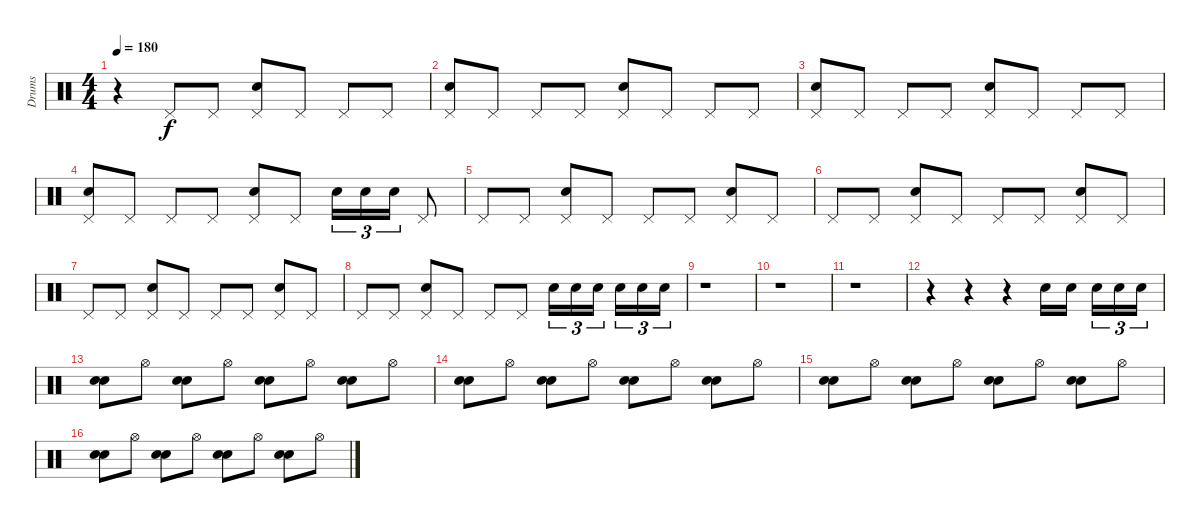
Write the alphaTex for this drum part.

\track ("Drums" "Drums") {instrument percussion}
\staff {score}
\articulation defaults
\ts (4 4)
\tempo 180
\clef neutral
\ks c
r.4{dy f} "Pedal Hi-Hat (hit)".8 "Pedal Hi-Hat (hit)".8 ("Pedal Hi-Hat (hit)" "Snare (hit) 2").8 "Pedal Hi-Hat (hit)".8 "Pedal Hi-Hat (hit)".8 "Pedal Hi-Hat (hit)".8 |
("Pedal Hi-Hat (hit)" "Snare (hit) 2").8 "Pedal Hi-Hat (hit)".8 "Pedal Hi-Hat (hit)".8 "Pedal Hi-Hat (hit)".8 ("Pedal Hi-Hat (hit)" "Snare (hit) 2").8 "Pedal Hi-Hat (hit)".8 "Pedal Hi-Hat (hit)".8 "Pedal Hi-Hat (hit)".8 |
("Pedal Hi-Hat (hit)" "Snare (hit) 2").8 "Pedal Hi-Hat (hit)".8 "Pedal Hi-Hat (hit)".8 "Pedal Hi-Hat (hit)".8 ("Pedal Hi-Hat (hit)" "Snare (hit) 2").8 "Pedal Hi-Hat (hit)".8 "Pedal Hi-Hat (hit)".8 "Pedal Hi-Hat (hit)".8 |
("Pedal Hi-Hat (hit)" "Snare (hit) 2").8 "Pedal Hi-Hat (hit)".8 "Pedal Hi-Hat (hit)".8 "Pedal Hi-Hat (hit)".8 ("Pedal Hi-Hat (hit)" "Snare (hit) 2").8 "Pedal Hi-Hat (hit)".8 "Snare (hit) 2".16{tu (3 2)} "Snare (hit) 2".16{tu (3 2)} "Snare (hit) 2".16{tu (3 2)} "Pedal Hi-Hat (hit)".8 |
"Pedal Hi-Hat (hit)".8 "Pedal Hi-Hat (hit)".8 ("Pedal Hi-Hat (hit)" "Snare (hit) 2").8 "Pedal Hi-Hat (hit)".8 "Pedal Hi-Hat (hit)".8 "Pedal Hi-Hat (hit)".8 ("Pedal Hi-Hat (hit)" "Snare (hit) 2").8 "Pedal Hi-Hat (hit)".8 |
"Pedal Hi-Hat (hit)".8 "Pedal Hi-Hat (hit)".8 ("Pedal Hi-Hat (hit)" "Snare (hit) 2").8 "Pedal Hi-Hat (hit)".8 "Pedal Hi-Hat (hit)".8 "Pedal Hi-Hat (hit)".8 ("Pedal Hi-Hat (hit)" "Snare (hit) 2").8 "Pedal Hi-Hat (hit)".8 |
"Pedal Hi-Hat (hit)".8 "Pedal Hi-Hat (hit)".8 ("Pedal Hi-Hat (hit)" "Snare (hit) 2").8 "Pedal Hi-Hat (hit)".8 "Pedal Hi-Hat (hit)".8 "Pedal Hi-Hat (hit)".8 ("Pedal Hi-Hat (hit)" "Snare (hit) 2").8 "Pedal Hi-Hat (hit)".8 |
"Pedal Hi-Hat (hit)".8 "Pedal Hi-Hat (hit)".8 ("Pedal Hi-Hat (hit)" "Snare (hit) 2").8 "Pedal Hi-Hat (hit)".8 "Pedal Hi-Hat (hit)".8 "Pedal Hi-Hat (hit)".8 "Snare (hit) 2".16{tu (3 2)} "Snare (hit) 2".16{tu (3 2)} "Snare (hit) 2".16{tu (3 2)} "Electric Snare (hit)".16{tu (3 2)} "Electric Snare (hit)".16{tu (3 2)} "Electric Snare (hit)".16{tu (3 2)} |
r.1 |
r.1 |
r.1 |
r.4 r.4 r.4 "Snare (hit) 2".16 "Snare (hit) 2".16 "Snare (hit) 2".16{tu (3 2)} "Snare (hit) 2".16{tu (3 2)} "Snare (hit) 2".16{tu (3 2)} |
("Electric Snare (hit)" "Snare (hit) 2").8 "Hi-Hat (open)".8 ("Electric Snare (hit)" "Snare (hit) 2").8 "Hi-Hat (open)".8 ("Electric Snare (hit)" "Snare (hit) 2").8 "Hi-Hat (open)".8 ("Electric Snare (hit)" "Snare (hit) 2").8 "Hi-Hat (open)".8 |
("Electric Snare (hit)" "Snare (hit) 2").8 "Hi-Hat (open)".8 ("Electric Snare (hit)" "Snare (hit) 2").8 "Hi-Hat (open)".8 ("Electric Snare (hit)" "Snare (hit) 2").8 "Hi-Hat (open)".8 ("Electric Snare (hit)" "Snare (hit) 2").8 "Hi-Hat (open)".8 |
("Electric Snare (hit)" "Snare (hit) 2").8 "Hi-Hat (open)".8 ("Electric Snare (hit)" "Snare (hit) 2").8 "Hi-Hat (open)".8 ("Electric Snare (hit)" "Snare (hit) 2").8 "Hi-Hat (open)".8 ("Electric Snare (hit)" "Snare (hit) 2").8 "Hi-Hat (open)".8 |
("Electric Snare (hit)" "Snare (hit) 2").8 "Hi-Hat (open)".8 ("Electric Snare (hit)" "Snare (hit) 2").8 "Hi-Hat (open)".8 ("Electric Snare (hit)" "Snare (hit) 2").8 "Hi-Hat (open)".8 ("Electric Snare (hit)" "Snare (hit) 2").8 "Hi-Hat (open)".8
